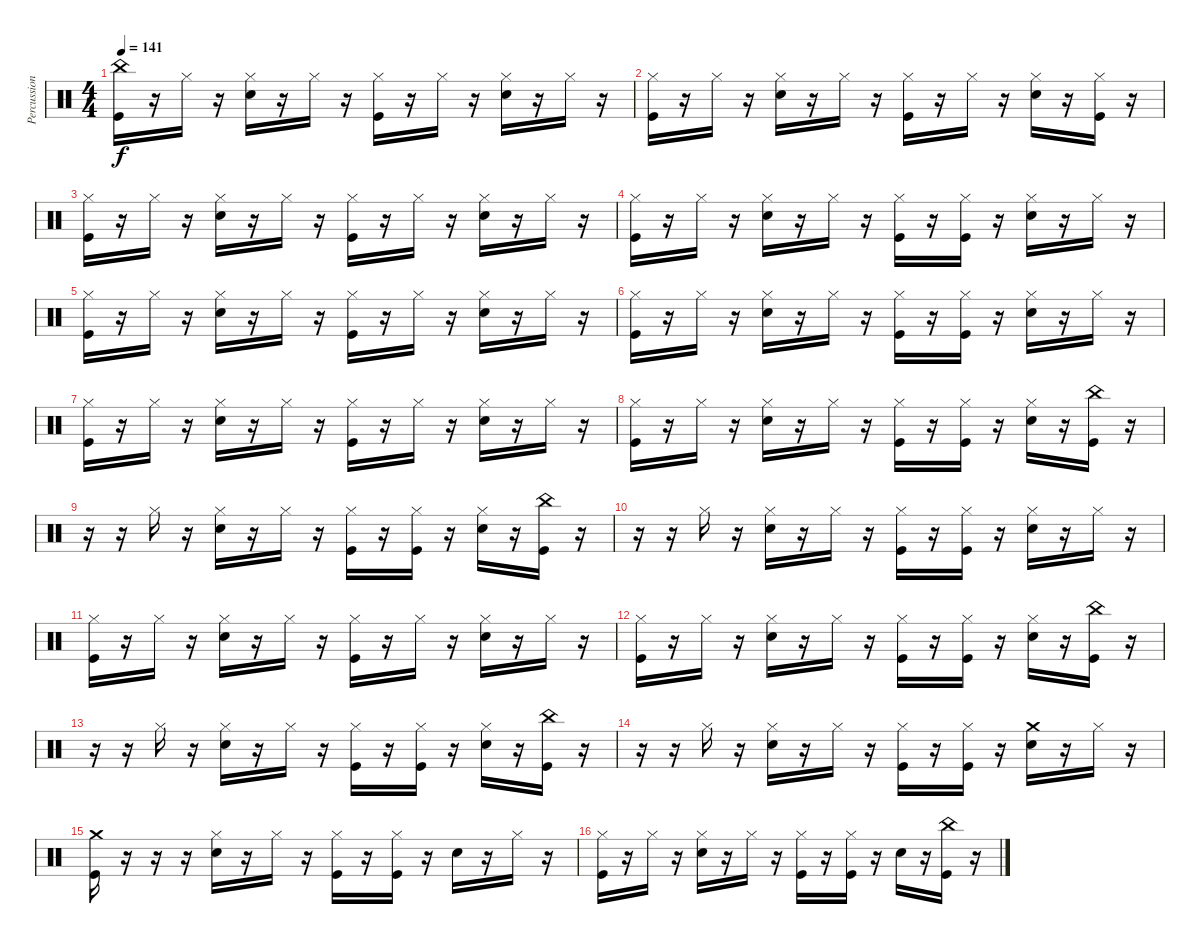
\track ("Percussion" "Percussion") {instrument percussion}
\staff {score}
\articulation defaults
\ts (4 4)
\tempo 141
\clef neutral
\ks c
("China (hit)" "Kick (hit)").16{dy f} r.16 "Hi-Hat (closed)".16 r.16 ("Hi-Hat (closed)" "Electric Snare (hit)").16 r.16 "Hi-Hat (closed)".16 r.16 ("Hi-Hat (closed)" "Kick (hit)").16 r.16 "Hi-Hat (closed)".16 r.16 ("Hi-Hat (closed)" "Electric Snare (hit)").16 r.16 "Hi-Hat (closed)".16 r.16 |
("Hi-Hat (closed)" "Kick (hit)").16 r.16 "Hi-Hat (closed)".16 r.16 ("Hi-Hat (closed)" "Electric Snare (hit)").16 r.16 "Hi-Hat (closed)".16 r.16 ("Hi-Hat (closed)" "Kick (hit)").16 r.16 "Hi-Hat (closed)".16 r.16 ("Hi-Hat (closed)" "Electric Snare (hit)").16 r.16 ("Hi-Hat (closed)" "Kick (hit)").16 r.16 |
("Hi-Hat (closed)" "Kick (hit)").16 r.16 "Hi-Hat (closed)".16 r.16 ("Hi-Hat (closed)" "Electric Snare (hit)").16 r.16 "Hi-Hat (closed)".16 r.16 ("Hi-Hat (closed)" "Kick (hit)").16 r.16 "Hi-Hat (closed)".16 r.16 ("Hi-Hat (closed)" "Electric Snare (hit)").16 r.16 "Hi-Hat (closed)".16 r.16 |
("Hi-Hat (closed)" "Kick (hit)").16 r.16 "Hi-Hat (closed)".16 r.16 ("Hi-Hat (closed)" "Electric Snare (hit)").16 r.16 "Hi-Hat (closed)".16 r.16 ("Hi-Hat (closed)" "Kick (hit)").16 r.16 ("Hi-Hat (closed)" "Kick (hit)").16 r.16 ("Hi-Hat (closed)" "Electric Snare (hit)").16 r.16 "Hi-Hat (closed)".16 r.16 |
("Hi-Hat (closed)" "Kick (hit)").16 r.16 "Hi-Hat (closed)".16 r.16 ("Hi-Hat (closed)" "Electric Snare (hit)").16 r.16 "Hi-Hat (closed)".16 r.16 ("Hi-Hat (closed)" "Kick (hit)").16 r.16 "Hi-Hat (closed)".16 r.16 ("Hi-Hat (closed)" "Electric Snare (hit)").16 r.16 "Hi-Hat (closed)".16 r.16 |
("Hi-Hat (closed)" "Kick (hit)").16 r.16 "Hi-Hat (closed)".16 r.16 ("Hi-Hat (closed)" "Electric Snare (hit)").16 r.16 "Hi-Hat (closed)".16 r.16 ("Hi-Hat (closed)" "Kick (hit)").16 r.16 ("Hi-Hat (closed)" "Kick (hit)").16 r.16 ("Hi-Hat (closed)" "Electric Snare (hit)").16 r.16 "Hi-Hat (closed)".16 r.16 |
("Hi-Hat (closed)" "Kick (hit)").16 r.16 "Hi-Hat (closed)".16 r.16 ("Hi-Hat (closed)" "Electric Snare (hit)").16 r.16 "Hi-Hat (closed)".16 r.16 ("Hi-Hat (closed)" "Kick (hit)").16 r.16 "Hi-Hat (closed)".16 r.16 ("Hi-Hat (closed)" "Electric Snare (hit)").16 r.16 "Hi-Hat (closed)".16 r.16 |
("Hi-Hat (closed)" "Kick (hit)").16 r.16 "Hi-Hat (closed)".16 r.16 ("Hi-Hat (closed)" "Electric Snare (hit)").16 r.16 "Hi-Hat (closed)".16 r.16 ("Hi-Hat (closed)" "Kick (hit)").16 r.16 ("Hi-Hat (closed)" "Kick (hit)").16 r.16 ("Hi-Hat (closed)" "Electric Snare (hit)").16 r.16 ("China (hit)" "Kick (hit)").16 r.16 |
r.16 r.16 "Hi-Hat (closed)".16 r.16 ("Hi-Hat (closed)" "Electric Snare (hit)").16 r.16 "Hi-Hat (closed)".16 r.16 ("Hi-Hat (closed)" "Kick (hit)").16 r.16 ("Hi-Hat (closed)" "Kick (hit)").16 r.16 ("Hi-Hat (closed)" "Electric Snare (hit)").16 r.16 ("China (hit)" "Kick (hit)").16 r.16 |
r.16 r.16 "Hi-Hat (closed)".16 r.16 ("Hi-Hat (closed)" "Electric Snare (hit)").16 r.16 "Hi-Hat (closed)".16 r.16 ("Hi-Hat (closed)" "Kick (hit)").16 r.16 ("Hi-Hat (closed)" "Kick (hit)").16 r.16 ("Hi-Hat (closed)" "Electric Snare (hit)").16 r.16 "Hi-Hat (closed)".16 r.16 |
("Hi-Hat (closed)" "Kick (hit)").16 r.16 "Hi-Hat (closed)".16 r.16 ("Hi-Hat (closed)" "Electric Snare (hit)").16 r.16 "Hi-Hat (closed)".16 r.16 ("Hi-Hat (closed)" "Kick (hit)").16 r.16 "Hi-Hat (closed)".16 r.16 ("Hi-Hat (closed)" "Electric Snare (hit)").16 r.16 "Hi-Hat (closed)".16 r.16 |
("Hi-Hat (closed)" "Kick (hit)").16 r.16 "Hi-Hat (closed)".16 r.16 ("Hi-Hat (closed)" "Electric Snare (hit)").16 r.16 "Hi-Hat (closed)".16 r.16 ("Hi-Hat (closed)" "Kick (hit)").16 r.16 ("Hi-Hat (closed)" "Kick (hit)").16 r.16 ("Hi-Hat (closed)" "Electric Snare (hit)").16 r.16 ("China (hit)" "Kick (hit)").16 r.16 |
r.16 r.16 "Hi-Hat (closed)".16 r.16 ("Hi-Hat (closed)" "Electric Snare (hit)").16 r.16 "Hi-Hat (closed)".16 r.16 ("Hi-Hat (closed)" "Kick (hit)").16 r.16 ("Hi-Hat (closed)" "Kick (hit)").16 r.16 ("Hi-Hat (closed)" "Electric Snare (hit)").16 r.16 ("China (hit)" "Kick (hit)").16 r.16 |
r.16 r.16 "Hi-Hat (closed)".16 r.16 ("Hi-Hat (closed)" "Electric Snare (hit)").16 r.16 "Hi-Hat (closed)".16 r.16 ("Hi-Hat (closed)" "Kick (hit)").16 r.16 ("Hi-Hat (closed)" "Kick (hit)").16 r.16 ("Crash medium (hit)" "Electric Snare (hit)").16 r.16 "Hi-Hat (closed)".16 r.16 |
("Crash medium (hit)" "Kick (hit)").16 r.16 r.16 r.16 ("Hi-Hat (closed)" "Electric Snare (hit)").16 r.16 "Hi-Hat (closed)".16 r.16 ("Hi-Hat (closed)" "Kick (hit)").16 r.16 ("Hi-Hat (closed)" "Kick (hit)").16 r.16 "Electric Snare (hit)".16 r.16 "Hi-Hat (closed)".16 r.16 |
("Hi-Hat (closed)" "Kick (hit)").16 r.16 "Hi-Hat (closed)".16 r.16 ("Hi-Hat (closed)" "Electric Snare (hit)").16 r.16 "Hi-Hat (closed)".16 r.16 ("Hi-Hat (closed)" "Kick (hit)").16 r.16 ("Hi-Hat (closed)" "Kick (hit)").16 r.16 "Electric Snare (hit)".16 r.16 ("China (hit)" "Kick (hit)").16 r.16
